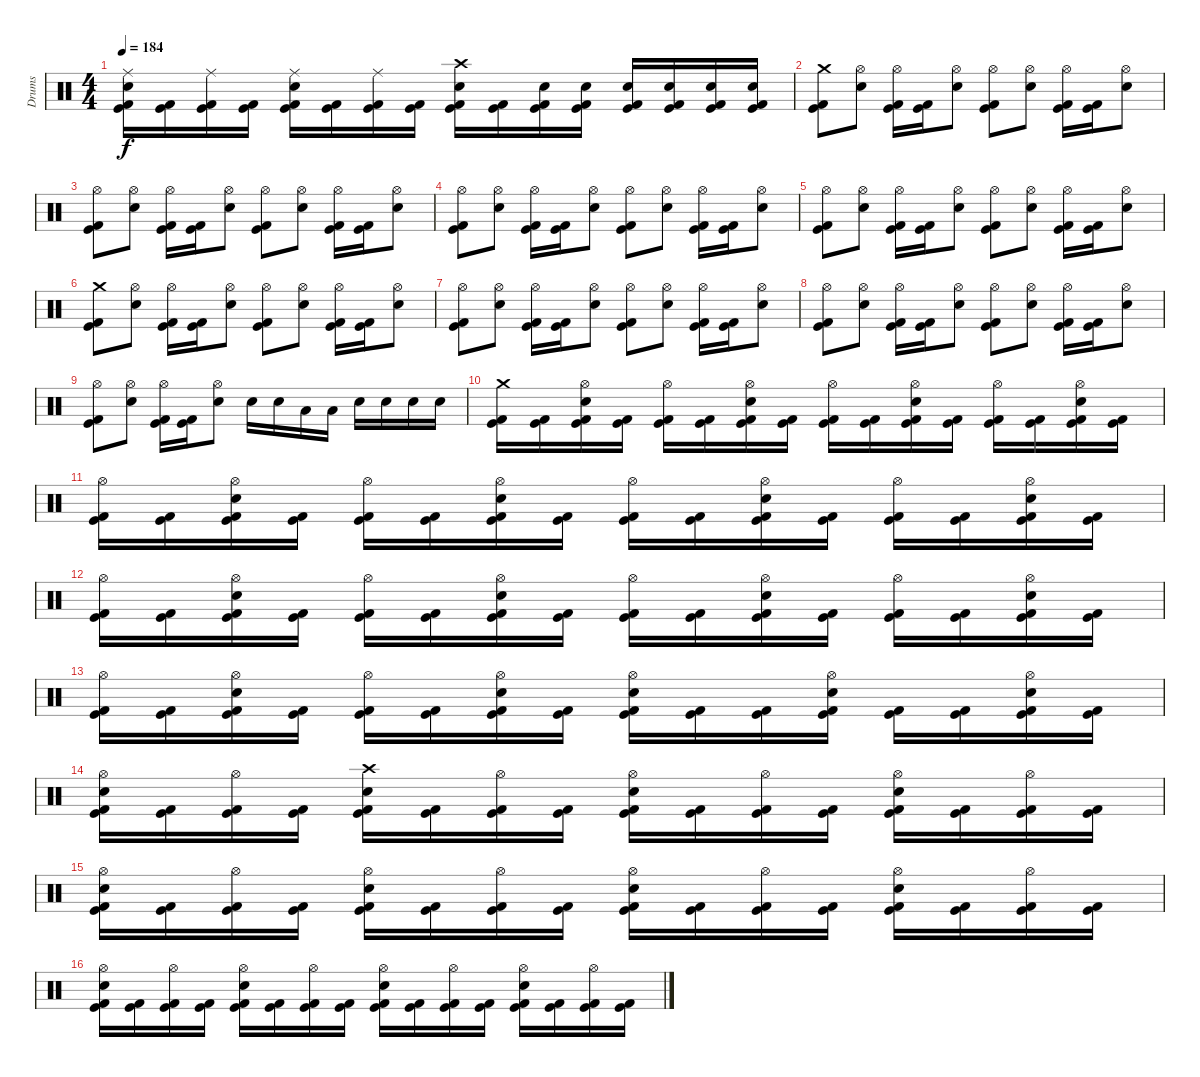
\track ("Drums" "Drums") {instrument percussion}
\staff {score}
\articulation defaults
\ts (4 4)
\tempo 184
\clef neutral
\ks c
("Ride (middle)" "Electric Snare (hit)" "Kick (hit)" "Kick (hit) 2").16{dy f} ("Kick (hit)" "Kick (hit) 2").16 ("Ride (middle)" "Kick (hit)" "Kick (hit) 2").16 ("Kick (hit)" "Kick (hit) 2").16 ("Ride (middle)" "Electric Snare (hit)" "Kick (hit)" "Kick (hit) 2").16 ("Kick (hit)" "Kick (hit) 2").16 ("Ride (middle)" "Kick (hit)" "Kick (hit) 2").16 ("Kick (hit)" "Kick (hit) 2").16 ("Crash high (hit)" "Electric Snare (hit)" "Kick (hit)" "Kick (hit) 2").16 ("Kick (hit)" "Kick (hit) 2").16 ("Electric Snare (hit)" "Kick (hit)" "Kick (hit) 2").16 ("Electric Snare (hit)" "Kick (hit)" "Kick (hit) 2").16 ("Electric Snare (hit)" "Kick (hit)" "Kick (hit) 2").16 ("Electric Snare (hit)" "Kick (hit)" "Kick (hit) 2").16 ("Electric Snare (hit)" "Kick (hit)" "Kick (hit) 2").16 ("Electric Snare (hit)" "Kick (hit)" "Kick (hit) 2").16 |
("Crash medium (hit)" "Kick (hit)" "Kick (hit) 2").8 ("Hi-Hat (open)" "Electric Snare (hit)").8 ("Hi-Hat (open)" "Kick (hit)" "Kick (hit) 2").16 ("Kick (hit)" "Kick (hit) 2").16 ("Hi-Hat (open)" "Electric Snare (hit)").8 ("Hi-Hat (open)" "Kick (hit)" "Kick (hit) 2").8 ("Hi-Hat (open)" "Electric Snare (hit)").8 ("Hi-Hat (open)" "Kick (hit)" "Kick (hit) 2").16 ("Kick (hit)" "Kick (hit) 2").16 ("Hi-Hat (open)" "Electric Snare (hit)").8 |
("Hi-Hat (open)" "Kick (hit)" "Kick (hit) 2").8 ("Hi-Hat (open)" "Electric Snare (hit)").8 ("Hi-Hat (open)" "Kick (hit)" "Kick (hit) 2").16 ("Kick (hit)" "Kick (hit) 2").16 ("Hi-Hat (open)" "Electric Snare (hit)").8 ("Hi-Hat (open)" "Kick (hit)" "Kick (hit) 2").8 ("Hi-Hat (open)" "Electric Snare (hit)").8 ("Hi-Hat (open)" "Kick (hit)" "Kick (hit) 2").16 ("Kick (hit)" "Kick (hit) 2").16 ("Hi-Hat (open)" "Electric Snare (hit)").8 |
("Hi-Hat (open)" "Kick (hit)" "Kick (hit) 2").8 ("Hi-Hat (open)" "Electric Snare (hit)").8 ("Hi-Hat (open)" "Kick (hit)" "Kick (hit) 2").16 ("Kick (hit)" "Kick (hit) 2").16 ("Hi-Hat (open)" "Electric Snare (hit)").8 ("Hi-Hat (open)" "Kick (hit)" "Kick (hit) 2").8 ("Hi-Hat (open)" "Electric Snare (hit)").8 ("Hi-Hat (open)" "Kick (hit)" "Kick (hit) 2").16 ("Kick (hit)" "Kick (hit) 2").16 ("Hi-Hat (open)" "Electric Snare (hit)").8 |
("Hi-Hat (open)" "Kick (hit)" "Kick (hit) 2").8 ("Hi-Hat (open)" "Electric Snare (hit)").8 ("Hi-Hat (open)" "Kick (hit)" "Kick (hit) 2").16 ("Kick (hit)" "Kick (hit) 2").16 ("Hi-Hat (open)" "Electric Snare (hit)").8 ("Hi-Hat (open)" "Kick (hit)" "Kick (hit) 2").8 ("Hi-Hat (open)" "Electric Snare (hit)").8 ("Hi-Hat (open)" "Kick (hit)" "Kick (hit) 2").16 ("Kick (hit)" "Kick (hit) 2").16 ("Hi-Hat (open)" "Electric Snare (hit)").8 |
("Crash medium (hit)" "Kick (hit)" "Kick (hit) 2").8 ("Hi-Hat (open)" "Electric Snare (hit)").8 ("Hi-Hat (open)" "Kick (hit)" "Kick (hit) 2").16 ("Kick (hit)" "Kick (hit) 2").16 ("Hi-Hat (open)" "Electric Snare (hit)").8 ("Hi-Hat (open)" "Kick (hit)" "Kick (hit) 2").8 ("Hi-Hat (open)" "Electric Snare (hit)").8 ("Hi-Hat (open)" "Kick (hit)" "Kick (hit) 2").16 ("Kick (hit)" "Kick (hit) 2").16 ("Hi-Hat (open)" "Electric Snare (hit)").8 |
("Hi-Hat (open)" "Kick (hit)" "Kick (hit) 2").8 ("Hi-Hat (open)" "Electric Snare (hit)").8 ("Hi-Hat (open)" "Kick (hit)" "Kick (hit) 2").16 ("Kick (hit)" "Kick (hit) 2").16 ("Hi-Hat (open)" "Electric Snare (hit)").8 ("Hi-Hat (open)" "Kick (hit)" "Kick (hit) 2").8 ("Hi-Hat (open)" "Electric Snare (hit)").8 ("Hi-Hat (open)" "Kick (hit)" "Kick (hit) 2").16 ("Kick (hit)" "Kick (hit) 2").16 ("Hi-Hat (open)" "Electric Snare (hit)").8 |
("Hi-Hat (open)" "Kick (hit)" "Kick (hit) 2").8 ("Hi-Hat (open)" "Electric Snare (hit)").8 ("Hi-Hat (open)" "Kick (hit)" "Kick (hit) 2").16 ("Kick (hit)" "Kick (hit) 2").16 ("Hi-Hat (open)" "Electric Snare (hit)").8 ("Hi-Hat (open)" "Kick (hit)" "Kick (hit) 2").8 ("Hi-Hat (open)" "Electric Snare (hit)").8 ("Hi-Hat (open)" "Kick (hit)" "Kick (hit) 2").16 ("Kick (hit)" "Kick (hit) 2").16 ("Hi-Hat (open)" "Electric Snare (hit)").8 |
("Hi-Hat (open)" "Kick (hit)" "Kick (hit) 2").8 ("Hi-Hat (open)" "Electric Snare (hit)").8 ("Hi-Hat (open)" "Kick (hit)" "Kick (hit) 2").16 ("Kick (hit)" "Kick (hit) 2").16 ("Hi-Hat (open)" "Electric Snare (hit)").8 "Electric Snare (hit)".16 "Electric Snare (hit)".16 "Low Tom (hit)".16 "Low Tom (hit)".16 "Electric Snare (hit)".16 "Electric Snare (hit)".16 "Electric Snare (hit)".16 "Electric Snare (hit)".16 |
("Crash medium (hit)" "Kick (hit)" "Kick (hit) 2").16 ("Kick (hit)" "Kick (hit) 2").16 ("Hi-Hat (open)" "Electric Snare (hit)" "Kick (hit)" "Kick (hit) 2").16 ("Kick (hit)" "Kick (hit) 2").16 ("Hi-Hat (open)" "Kick (hit)" "Kick (hit) 2").16 ("Kick (hit)" "Kick (hit) 2").16 ("Hi-Hat (open)" "Electric Snare (hit)" "Kick (hit)" "Kick (hit) 2").16 ("Kick (hit)" "Kick (hit) 2").16 ("Hi-Hat (open)" "Kick (hit)" "Kick (hit) 2").16 ("Kick (hit)" "Kick (hit) 2").16 ("Hi-Hat (open)" "Electric Snare (hit)" "Kick (hit)" "Kick (hit) 2").16 ("Kick (hit)" "Kick (hit) 2").16 ("Hi-Hat (open)" "Kick (hit)" "Kick (hit) 2").16 ("Kick (hit)" "Kick (hit) 2").16 ("Hi-Hat (open)" "Electric Snare (hit)" "Kick (hit)" "Kick (hit) 2").16 ("Kick (hit)" "Kick (hit) 2").16 |
("Hi-Hat (open)" "Kick (hit)" "Kick (hit) 2").16 ("Kick (hit)" "Kick (hit) 2").16 ("Hi-Hat (open)" "Electric Snare (hit)" "Kick (hit)" "Kick (hit) 2").16 ("Kick (hit)" "Kick (hit) 2").16 ("Hi-Hat (open)" "Kick (hit)" "Kick (hit) 2").16 ("Kick (hit)" "Kick (hit) 2").16 ("Hi-Hat (open)" "Electric Snare (hit)" "Kick (hit)" "Kick (hit) 2").16 ("Kick (hit)" "Kick (hit) 2").16 ("Hi-Hat (open)" "Kick (hit)" "Kick (hit) 2").16 ("Kick (hit)" "Kick (hit) 2").16 ("Hi-Hat (open)" "Electric Snare (hit)" "Kick (hit)" "Kick (hit) 2").16 ("Kick (hit)" "Kick (hit) 2").16 ("Hi-Hat (open)" "Kick (hit)" "Kick (hit) 2").16 ("Kick (hit)" "Kick (hit) 2").16 ("Hi-Hat (open)" "Electric Snare (hit)" "Kick (hit)" "Kick (hit) 2").16 ("Kick (hit)" "Kick (hit) 2").16 |
("Hi-Hat (open)" "Kick (hit)" "Kick (hit) 2").16 ("Kick (hit)" "Kick (hit) 2").16 ("Hi-Hat (open)" "Electric Snare (hit)" "Kick (hit)" "Kick (hit) 2").16 ("Kick (hit)" "Kick (hit) 2").16 ("Hi-Hat (open)" "Kick (hit)" "Kick (hit) 2").16 ("Kick (hit)" "Kick (hit) 2").16 ("Hi-Hat (open)" "Electric Snare (hit)" "Kick (hit)" "Kick (hit) 2").16 ("Kick (hit)" "Kick (hit) 2").16 ("Hi-Hat (open)" "Kick (hit)" "Kick (hit) 2").16 ("Kick (hit)" "Kick (hit) 2").16 ("Hi-Hat (open)" "Electric Snare (hit)" "Kick (hit)" "Kick (hit) 2").16 ("Kick (hit)" "Kick (hit) 2").16 ("Hi-Hat (open)" "Kick (hit)" "Kick (hit) 2").16 ("Kick (hit)" "Kick (hit) 2").16 ("Hi-Hat (open)" "Electric Snare (hit)" "Kick (hit)" "Kick (hit) 2").16 ("Kick (hit)" "Kick (hit) 2").16 |
("Hi-Hat (open)" "Kick (hit)" "Kick (hit) 2").16 ("Kick (hit)" "Kick (hit) 2").16 ("Hi-Hat (open)" "Electric Snare (hit)" "Kick (hit)" "Kick (hit) 2").16 ("Kick (hit)" "Kick (hit) 2").16 ("Hi-Hat (open)" "Kick (hit)" "Kick (hit) 2").16 ("Kick (hit)" "Kick (hit) 2").16 ("Hi-Hat (open)" "Electric Snare (hit)" "Kick (hit)" "Kick (hit) 2").16 ("Kick (hit)" "Kick (hit) 2").16 ("Hi-Hat (open)" "Electric Snare (hit)" "Kick (hit)" "Kick (hit) 2").16 ("Kick (hit)" "Kick (hit) 2").16 ("Kick (hit)" "Kick (hit) 2").16 ("Hi-Hat (open)" "Electric Snare (hit)" "Kick (hit)" "Kick (hit) 2").16 ("Kick (hit)" "Kick (hit) 2").16 ("Kick (hit)" "Kick (hit) 2").16 ("Hi-Hat (open)" "Electric Snare (hit)" "Kick (hit)" "Kick (hit) 2").16 ("Kick (hit)" "Kick (hit) 2").16 |
("Hi-Hat (open)" "Electric Snare (hit)" "Kick (hit)" "Kick (hit) 2").16 ("Kick (hit)" "Kick (hit) 2").16 ("Hi-Hat (open)" "Kick (hit)" "Kick (hit) 2").16 ("Kick (hit)" "Kick (hit) 2").16 ("Crash high (hit)" "Electric Snare (hit)" "Kick (hit)" "Kick (hit) 2").16 ("Kick (hit)" "Kick (hit) 2").16 ("Hi-Hat (open)" "Kick (hit)" "Kick (hit) 2").16 ("Kick (hit)" "Kick (hit) 2").16 ("Hi-Hat (open)" "Electric Snare (hit)" "Kick (hit)" "Kick (hit) 2").16 ("Kick (hit)" "Kick (hit) 2").16 ("Hi-Hat (open)" "Kick (hit)" "Kick (hit) 2").16 ("Kick (hit)" "Kick (hit) 2").16 ("Hi-Hat (open)" "Electric Snare (hit)" "Kick (hit)" "Kick (hit) 2").16 ("Kick (hit)" "Kick (hit) 2").16 ("Hi-Hat (open)" "Kick (hit)" "Kick (hit) 2").16 ("Kick (hit)" "Kick (hit) 2").16 |
("Hi-Hat (open)" "Electric Snare (hit)" "Kick (hit)" "Kick (hit) 2").16 ("Kick (hit)" "Kick (hit) 2").16 ("Hi-Hat (open)" "Kick (hit)" "Kick (hit) 2").16 ("Kick (hit)" "Kick (hit) 2").16 ("Hi-Hat (open)" "Electric Snare (hit)" "Kick (hit)" "Kick (hit) 2").16 ("Kick (hit)" "Kick (hit) 2").16 ("Hi-Hat (open)" "Kick (hit)" "Kick (hit) 2").16 ("Kick (hit)" "Kick (hit) 2").16 ("Hi-Hat (open)" "Electric Snare (hit)" "Kick (hit)" "Kick (hit) 2").16 ("Kick (hit)" "Kick (hit) 2").16 ("Hi-Hat (open)" "Kick (hit)" "Kick (hit) 2").16 ("Kick (hit)" "Kick (hit) 2").16 ("Hi-Hat (open)" "Electric Snare (hit)" "Kick (hit)" "Kick (hit) 2").16 ("Kick (hit)" "Kick (hit) 2").16 ("Hi-Hat (open)" "Kick (hit)" "Kick (hit) 2").16 ("Kick (hit)" "Kick (hit) 2").16 |
("Hi-Hat (open)" "Electric Snare (hit)" "Kick (hit)" "Kick (hit) 2").16 ("Kick (hit)" "Kick (hit) 2").16 ("Hi-Hat (open)" "Kick (hit)" "Kick (hit) 2").16 ("Kick (hit)" "Kick (hit) 2").16 ("Hi-Hat (open)" "Electric Snare (hit)" "Kick (hit)" "Kick (hit) 2").16 ("Kick (hit)" "Kick (hit) 2").16 ("Hi-Hat (open)" "Kick (hit)" "Kick (hit) 2").16 ("Kick (hit)" "Kick (hit) 2").16 ("Hi-Hat (open)" "Electric Snare (hit)" "Kick (hit)" "Kick (hit) 2").16 ("Kick (hit)" "Kick (hit) 2").16 ("Hi-Hat (open)" "Kick (hit)" "Kick (hit) 2").16 ("Kick (hit)" "Kick (hit) 2").16 ("Hi-Hat (open)" "Electric Snare (hit)" "Kick (hit)" "Kick (hit) 2").16 ("Kick (hit)" "Kick (hit) 2").16 ("Hi-Hat (open)" "Kick (hit)" "Kick (hit) 2").16 ("Kick (hit)" "Kick (hit) 2").16
